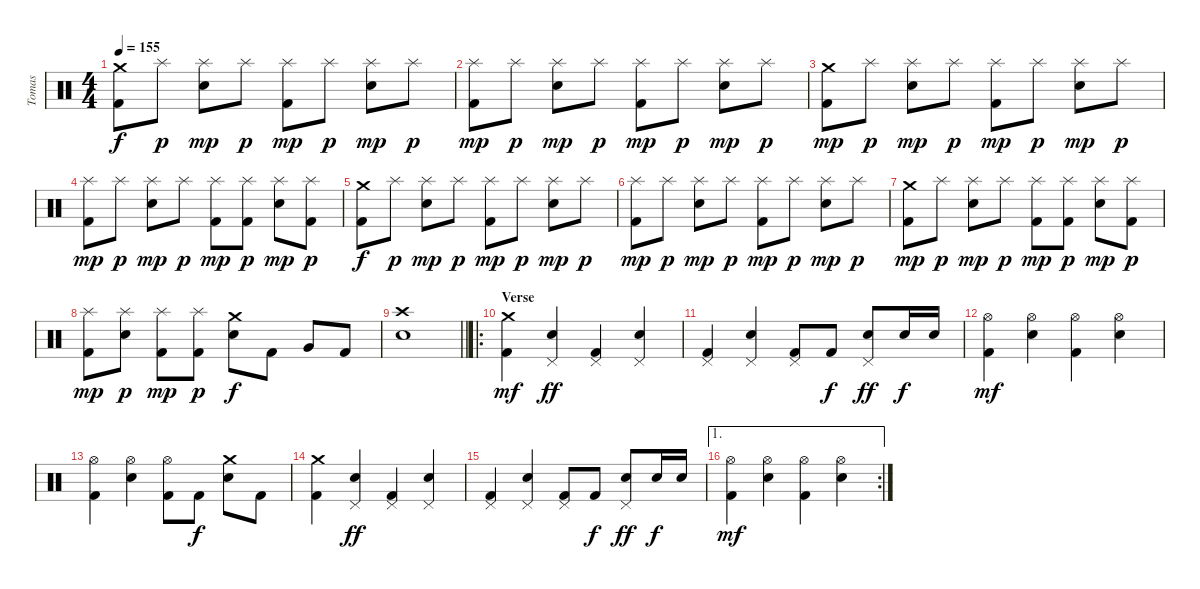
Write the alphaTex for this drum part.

\track ("Tomas" "Tomas") {instrument percussion}
\staff {score}
\articulation defaults
\ts (4 4)
\tempo 155
\clef neutral
\ks c
("Kick (hit) 2" "Crash medium (hit)").8{dy f} "Splash (hit)".8{dy p} ("Electric Snare (hit)" "Splash (hit)").8{dy mp} "Splash (hit)".8{dy p} ("Kick (hit) 2" "Splash (hit)").8{dy mp} "Splash (hit)".8{dy p} ("Electric Snare (hit)" "Splash (hit)").8{dy mp} "Splash (hit)".8{dy p} |
("Kick (hit) 2" "Splash (hit)").8{dy mp} "Splash (hit)".8{dy p} ("Electric Snare (hit)" "Splash (hit)").8{dy mp} "Splash (hit)".8{dy p} ("Kick (hit) 2" "Splash (hit)").8{dy mp} "Splash (hit)".8{dy p} ("Electric Snare (hit)" "Splash (hit)").8{dy mp} "Splash (hit)".8{dy p} |
("Kick (hit) 2" "Crash medium (hit)").8{dy mp} "Splash (hit)".8{dy p} ("Electric Snare (hit)" "Splash (hit)").8{dy mp} "Splash (hit)".8{dy p} ("Kick (hit) 2" "Splash (hit)").8{dy mp} "Splash (hit)".8{dy p} ("Electric Snare (hit)" "Splash (hit)").8{dy mp} "Splash (hit)".8{dy p} |
("Kick (hit) 2" "Splash (hit)").8{dy mp} "Splash (hit)".8{dy p} ("Electric Snare (hit)" "Splash (hit)").8{dy mp} "Splash (hit)".8{dy p} ("Kick (hit) 2" "Splash (hit)").8{dy mp} ("Kick (hit) 2" "Splash (hit)").8{dy p} ("Electric Snare (hit)" "Splash (hit)").8{dy mp} ("Kick (hit) 2" "Splash (hit)").8{dy p} |
("Kick (hit) 2" "Crash medium (hit)").8{dy f} "Splash (hit)".8{dy p} ("Electric Snare (hit)" "Splash (hit)").8{dy mp} "Splash (hit)".8{dy p} ("Kick (hit) 2" "Splash (hit)").8{dy mp} "Splash (hit)".8{dy p} ("Electric Snare (hit)" "Splash (hit)").8{dy mp} "Splash (hit)".8{dy p} |
("Kick (hit) 2" "Splash (hit)").8{dy mp} "Splash (hit)".8{dy p} ("Electric Snare (hit)" "Splash (hit)").8{dy mp} "Splash (hit)".8{dy p} ("Kick (hit) 2" "Splash (hit)").8{dy mp} "Splash (hit)".8{dy p} ("Electric Snare (hit)" "Splash (hit)").8{dy mp} "Splash (hit)".8{dy p} |
("Kick (hit) 2" "Crash medium (hit)").8{dy mp} "Splash (hit)".8{dy p} ("Electric Snare (hit)" "Splash (hit)").8{dy mp} "Splash (hit)".8{dy p} ("Kick (hit) 2" "Splash (hit)").8{dy mp} ("Kick (hit) 2" "Splash (hit)").8{dy p} ("Electric Snare (hit)" "Splash (hit)").8{dy mp} ("Kick (hit) 2" "Splash (hit)").8{dy p} |
("Kick (hit) 2" "Splash (hit)").8{dy mp} ("Electric Snare (hit)" "Splash (hit)").8{dy p} ("Kick (hit) 2" "Splash (hit)").8{dy mp} ("Kick (hit) 2" "Splash (hit)").8{dy p} ("Electric Snare (hit)" "Crash medium (hit)").8{dy f} "Kick (hit) 2".8 "Very Low Tom (hit)".8 "Kick (hit) 2".8 |
\barLineRight lightlight
("Electric Snare (hit)" "Crash high (hit)").1 |
\ro
\section ("" "Verse")
("Kick (hit) 2" "Crash medium (hit)").4{dy mf} ("Electric Snare (hit)" "Pedal Hi-Hat (hit)").4{dy ff} ("Kick (hit) 2" "Pedal Hi-Hat (hit)").4 ("Electric Snare (hit)" "Pedal Hi-Hat (hit)").4 |
("Kick (hit) 2" "Pedal Hi-Hat (hit)").4 ("Electric Snare (hit)" "Pedal Hi-Hat (hit)").4 ("Kick (hit) 2" "Pedal Hi-Hat (hit)").8 "Kick (hit) 2".8{dy f} ("Electric Snare (hit)" "Pedal Hi-Hat (hit)").8{dy ff} "Electric Snare (hit)".16{dy f} "Electric Snare (hit)".16 |
("Kick (hit) 2" "Hi-Hat (open)").4{dy mf} ("Electric Snare (hit)" "Hi-Hat (open)").4 ("Kick (hit) 2" "Hi-Hat (open)").4 ("Electric Snare (hit)" "Hi-Hat (open)").4 |
("Kick (hit) 2" "Hi-Hat (open)").4 ("Electric Snare (hit)" "Hi-Hat (open)").4 ("Kick (hit) 2" "Hi-Hat (open)").8 "Kick (hit) 2".8{dy f} ("Electric Snare (hit)" "Crash medium (hit)").8 "Kick (hit) 2".8 |
("Kick (hit) 2" "Crash medium (hit)").4 ("Electric Snare (hit)" "Pedal Hi-Hat (hit)").4{dy ff} ("Kick (hit) 2" "Pedal Hi-Hat (hit)").4 ("Electric Snare (hit)" "Pedal Hi-Hat (hit)").4 |
("Kick (hit) 2" "Pedal Hi-Hat (hit)").4 ("Electric Snare (hit)" "Pedal Hi-Hat (hit)").4 ("Kick (hit) 2" "Pedal Hi-Hat (hit)").8 "Kick (hit) 2".8{dy f} ("Electric Snare (hit)" "Pedal Hi-Hat (hit)").8{dy ff} "Electric Snare (hit)".16{dy f} "Electric Snare (hit)".16 |
\ae 1
\rc 2
("Kick (hit) 2" "Hi-Hat (open)").4{dy mf} ("Electric Snare (hit)" "Hi-Hat (open)").4 ("Kick (hit) 2" "Hi-Hat (open)").4 ("Electric Snare (hit)" "Hi-Hat (open)").4
